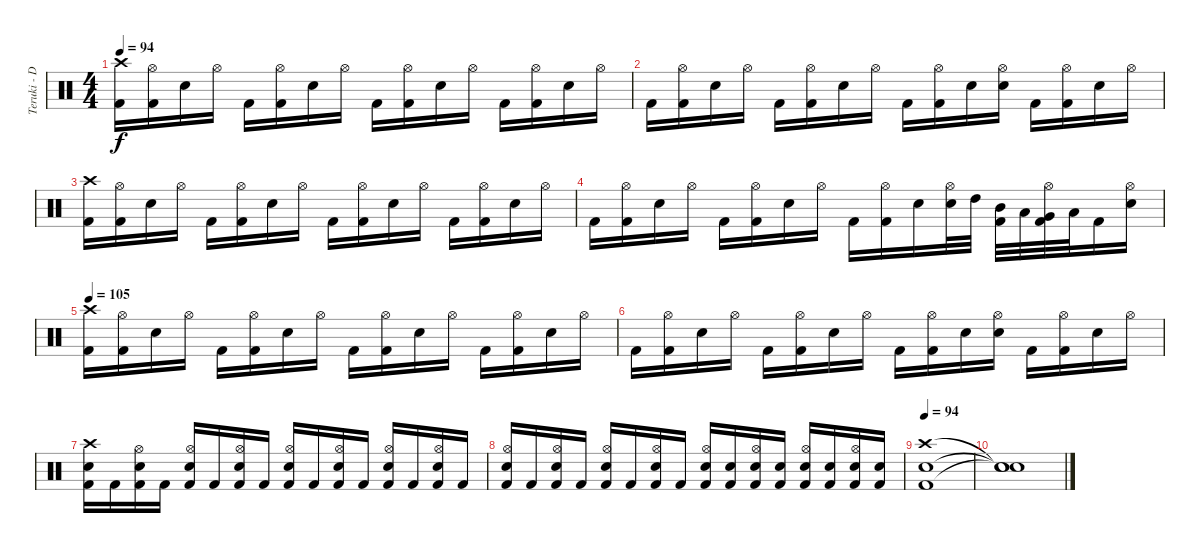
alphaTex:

\track ("Teruki - Drums" "Teruki - D") {instrument percussion}
\staff {score}
\articulation defaults
\ts (4 4)
\tempo 94
\clef neutral
\ks c
("Crash high (hit)" "Kick (hit) 2").16{dy f} ("Hi-Hat (open)" "Kick (hit) 2").16 "Electric Snare (hit)".16 "Hi-Hat (open)".16 "Kick (hit) 2".16 ("Hi-Hat (open)" "Kick (hit) 2").16 "Electric Snare (hit)".16 "Hi-Hat (open)".16 "Kick (hit) 2".16 ("Hi-Hat (open)" "Kick (hit) 2").16 "Electric Snare (hit)".16 "Hi-Hat (open)".16 "Kick (hit) 2".16 ("Hi-Hat (open)" "Kick (hit) 2").16 "Electric Snare (hit)".16 "Hi-Hat (open)".16 |
"Kick (hit) 2".16 ("Hi-Hat (open)" "Kick (hit) 2").16 "Electric Snare (hit)".16 "Hi-Hat (open)".16 "Kick (hit) 2".16 ("Hi-Hat (open)" "Kick (hit) 2").16 "Electric Snare (hit)".16 "Hi-Hat (open)".16 "Kick (hit) 2".16 ("Hi-Hat (open)" "Kick (hit) 2").16 "Electric Snare (hit)".16 ("Hi-Hat (open)" "Electric Snare (hit)").16 "Kick (hit) 2".16 ("Hi-Hat (open)" "Kick (hit) 2").16 "Electric Snare (hit)".16 "Hi-Hat (open)".16 |
("Crash high (hit)" "Kick (hit) 2").16 ("Hi-Hat (open)" "Kick (hit) 2").16 "Electric Snare (hit)".16 "Hi-Hat (open)".16 "Kick (hit) 2".16 ("Hi-Hat (open)" "Kick (hit) 2").16 "Electric Snare (hit)".16 "Hi-Hat (open)".16 "Kick (hit) 2".16 ("Hi-Hat (open)" "Kick (hit) 2").16 "Electric Snare (hit)".16 "Hi-Hat (open)".16 "Kick (hit) 2".16 ("Hi-Hat (open)" "Kick (hit) 2").16 "Electric Snare (hit)".16 "Hi-Hat (open)".16 |
"Kick (hit) 2".16 ("Hi-Hat (open)" "Kick (hit) 2").16 "Electric Snare (hit)".16 "Hi-Hat (open)".16 "Kick (hit) 2".16 ("Hi-Hat (open)" "Kick (hit) 2").16 "Electric Snare (hit)".16 "Hi-Hat (open)".16 "Kick (hit) 2".16 ("Hi-Hat (open)" "Kick (hit) 2").16 "Electric Snare (hit)".16 ("Hi-Hat (open)" "Electric Snare (hit)").32 "High Tom (hit)".32 ("Mid Tom (hit)" "Kick (hit) 2").32 "Low Tom (hit)".32 ("Hi-Hat (open)" "Very Low Tom (hit)" "Kick (hit) 2").32 "Low Floor Tom (hit)".32 "Kick (hit) 2".16 ("Hi-Hat (open)" "Electric Snare (hit)").16 |
\tempo 105
("Crash high (hit)" "Kick (hit) 2").16 ("Hi-Hat (open)" "Kick (hit) 2").16 "Electric Snare (hit)".16 "Hi-Hat (open)".16 "Kick (hit) 2".16 ("Hi-Hat (open)" "Kick (hit) 2").16 "Electric Snare (hit)".16 "Hi-Hat (open)".16 "Kick (hit) 2".16 ("Hi-Hat (open)" "Kick (hit) 2").16 "Electric Snare (hit)".16 "Hi-Hat (open)".16 "Kick (hit) 2".16 ("Hi-Hat (open)" "Kick (hit) 2").16 "Electric Snare (hit)".16 "Hi-Hat (open)".16 |
"Kick (hit) 2".16 ("Hi-Hat (open)" "Kick (hit) 2").16 "Electric Snare (hit)".16 "Hi-Hat (open)".16 "Kick (hit) 2".16 ("Hi-Hat (open)" "Kick (hit) 2").16 "Electric Snare (hit)".16 "Hi-Hat (open)".16 "Kick (hit) 2".16 ("Hi-Hat (open)" "Kick (hit) 2").16 "Electric Snare (hit)".16 ("Hi-Hat (open)" "Electric Snare (hit)").16 "Kick (hit) 2".16 ("Hi-Hat (open)" "Kick (hit) 2").16 "Electric Snare (hit)".16 "Hi-Hat (open)".16 |
("Crash high (hit)" "Electric Snare (hit)" "Kick (hit) 2").16 "Kick (hit) 2".16 ("Hi-Hat (open)" "Electric Snare (hit)" "Kick (hit) 2").16 "Kick (hit) 2".16 ("Hi-Hat (open)" "Electric Snare (hit)" "Kick (hit) 2").16 "Kick (hit) 2".16 ("Hi-Hat (open)" "Electric Snare (hit)" "Kick (hit) 2").16 "Kick (hit) 2".16 ("Hi-Hat (open)" "Electric Snare (hit)" "Kick (hit) 2").16 "Kick (hit) 2".16 ("Hi-Hat (open)" "Electric Snare (hit)" "Kick (hit) 2").16 "Kick (hit) 2".16 ("Hi-Hat (open)" "Electric Snare (hit)" "Kick (hit) 2").16 "Kick (hit) 2".16 ("Hi-Hat (open)" "Electric Snare (hit)" "Kick (hit) 2").16 "Kick (hit) 2".16 |
("Hi-Hat (open)" "Electric Snare (hit)" "Kick (hit) 2").16 "Kick (hit) 2".16 ("Hi-Hat (open)" "Electric Snare (hit)" "Kick (hit) 2").16 "Kick (hit) 2".16 ("Hi-Hat (open)" "Electric Snare (hit)" "Kick (hit) 2").16 "Kick (hit) 2".16 ("Hi-Hat (open)" "Electric Snare (hit)" "Kick (hit) 2").16 "Kick (hit) 2".16 ("Hi-Hat (open)" "Electric Snare (hit)" "Kick (hit) 2").16 ("Electric Snare (hit)" "Kick (hit) 2").16 ("Hi-Hat (open)" "Electric Snare (hit)" "Kick (hit) 2").16 ("Electric Snare (hit)" "Kick (hit) 2").16 ("Hi-Hat (open)" "Electric Snare (hit)" "Kick (hit) 2").16 ("Electric Snare (hit)" "Kick (hit) 2").16 ("Hi-Hat (open)" "Electric Snare (hit)" "Kick (hit) 2").16 ("Electric Snare (hit)" "Kick (hit) 2").16 |
\tempo 94
("Crash high (hit)" "Electric Snare (hit)" "Kick (hit) 2").1{volume 0} |
("Snare (hit)"{t} "Snare (hit)"{t} "Snare (hit)"{t}).1
